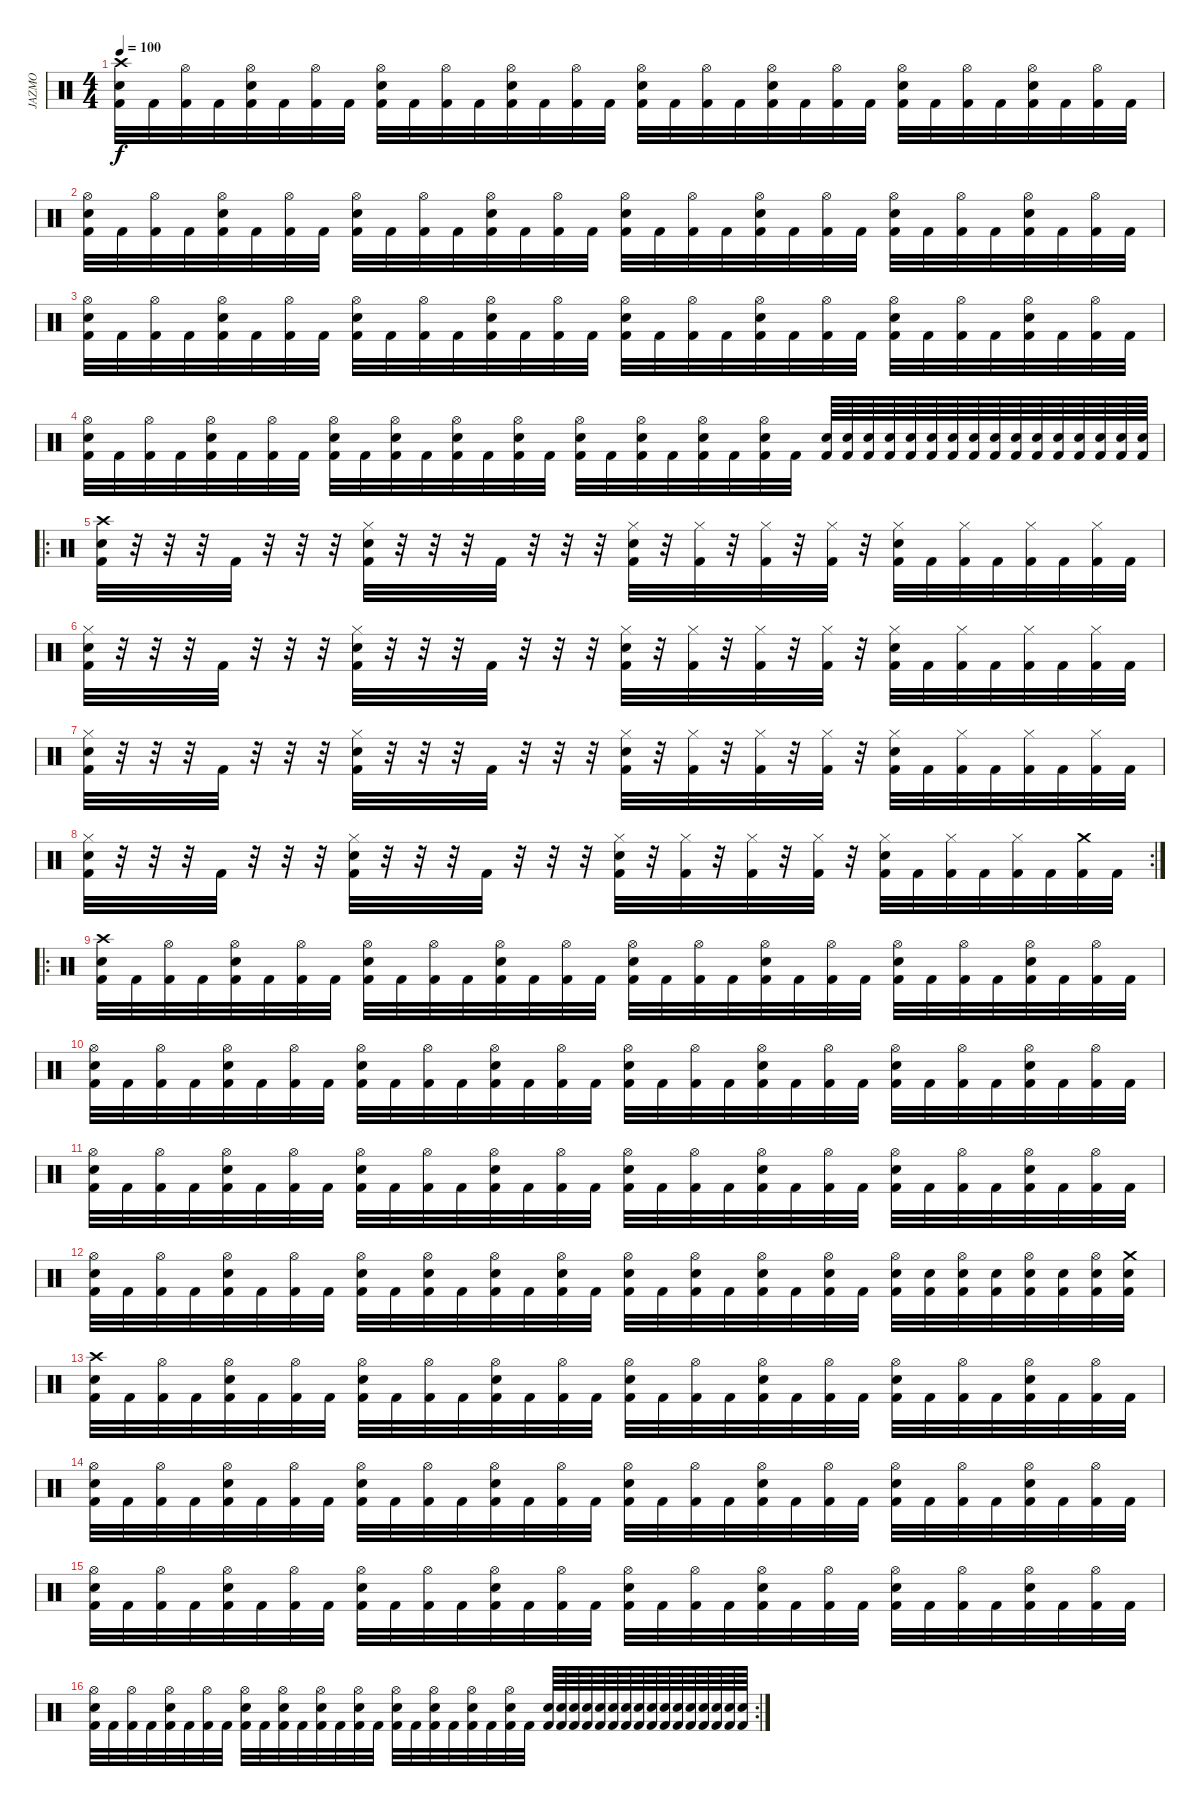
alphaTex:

\track ("JAZMO" "JAZMO") {instrument percussion}
\staff {score}
\articulation defaults
\ts (4 4)
\tempo 100
\clef neutral
\ks c
("Crash high (hit)" "Electric Snare (hit)" "Kick (hit) 2").32{dy f} "Kick (hit) 2".32 ("Hi-Hat (open)" "Kick (hit) 2").32 "Kick (hit) 2".32 ("Hi-Hat (open)" "Electric Snare (hit)" "Kick (hit) 2").32 "Kick (hit) 2".32 ("Hi-Hat (open)" "Kick (hit) 2").32 "Kick (hit) 2".32 ("Hi-Hat (open)" "Electric Snare (hit)" "Kick (hit) 2").32 "Kick (hit) 2".32 ("Hi-Hat (open)" "Kick (hit) 2").32 "Kick (hit) 2".32 ("Hi-Hat (open)" "Electric Snare (hit)" "Kick (hit) 2").32 "Kick (hit) 2".32 ("Hi-Hat (open)" "Kick (hit) 2").32 "Kick (hit) 2".32 ("Hi-Hat (open)" "Electric Snare (hit)" "Kick (hit) 2").32 "Kick (hit) 2".32 ("Hi-Hat (open)" "Kick (hit) 2").32 "Kick (hit) 2".32 ("Hi-Hat (open)" "Electric Snare (hit)" "Kick (hit) 2").32 "Kick (hit) 2".32 ("Hi-Hat (open)" "Kick (hit) 2").32 "Kick (hit) 2".32 ("Hi-Hat (open)" "Electric Snare (hit)" "Kick (hit) 2").32 "Kick (hit) 2".32 ("Hi-Hat (open)" "Kick (hit) 2").32 "Kick (hit) 2".32 ("Hi-Hat (open)" "Electric Snare (hit)" "Kick (hit) 2").32 "Kick (hit) 2".32 ("Hi-Hat (open)" "Kick (hit) 2").32 "Kick (hit) 2".32 |
("Hi-Hat (open)" "Electric Snare (hit)" "Kick (hit) 2").32 "Kick (hit) 2".32 ("Hi-Hat (open)" "Kick (hit) 2").32 "Kick (hit) 2".32 ("Hi-Hat (open)" "Electric Snare (hit)" "Kick (hit) 2").32 "Kick (hit) 2".32 ("Hi-Hat (open)" "Kick (hit) 2").32 "Kick (hit) 2".32 ("Hi-Hat (open)" "Electric Snare (hit)" "Kick (hit) 2").32 "Kick (hit) 2".32 ("Hi-Hat (open)" "Kick (hit) 2").32 "Kick (hit) 2".32 ("Hi-Hat (open)" "Electric Snare (hit)" "Kick (hit) 2").32 "Kick (hit) 2".32 ("Hi-Hat (open)" "Kick (hit) 2").32 "Kick (hit) 2".32 ("Hi-Hat (open)" "Electric Snare (hit)" "Kick (hit) 2").32 "Kick (hit) 2".32 ("Hi-Hat (open)" "Kick (hit) 2").32 "Kick (hit) 2".32 ("Hi-Hat (open)" "Electric Snare (hit)" "Kick (hit) 2").32 "Kick (hit) 2".32 ("Hi-Hat (open)" "Kick (hit) 2").32 "Kick (hit) 2".32 ("Hi-Hat (open)" "Electric Snare (hit)" "Kick (hit) 2").32 "Kick (hit) 2".32 ("Hi-Hat (open)" "Kick (hit) 2").32 "Kick (hit) 2".32 ("Hi-Hat (open)" "Electric Snare (hit)" "Kick (hit) 2").32 "Kick (hit) 2".32 ("Hi-Hat (open)" "Kick (hit) 2").32 "Kick (hit) 2".32 |
("Hi-Hat (open)" "Electric Snare (hit)" "Kick (hit) 2").32 "Kick (hit) 2".32 ("Hi-Hat (open)" "Kick (hit) 2").32 "Kick (hit) 2".32 ("Hi-Hat (open)" "Electric Snare (hit)" "Kick (hit) 2").32 "Kick (hit) 2".32 ("Hi-Hat (open)" "Kick (hit) 2").32 "Kick (hit) 2".32 ("Hi-Hat (open)" "Electric Snare (hit)" "Kick (hit) 2").32 "Kick (hit) 2".32 ("Hi-Hat (open)" "Kick (hit) 2").32 "Kick (hit) 2".32 ("Hi-Hat (open)" "Electric Snare (hit)" "Kick (hit) 2").32 "Kick (hit) 2".32 ("Hi-Hat (open)" "Kick (hit) 2").32 "Kick (hit) 2".32 ("Hi-Hat (open)" "Electric Snare (hit)" "Kick (hit) 2").32 "Kick (hit) 2".32 ("Hi-Hat (open)" "Kick (hit) 2").32 "Kick (hit) 2".32 ("Hi-Hat (open)" "Electric Snare (hit)" "Kick (hit) 2").32 "Kick (hit) 2".32 ("Hi-Hat (open)" "Kick (hit) 2").32 "Kick (hit) 2".32 ("Hi-Hat (open)" "Electric Snare (hit)" "Kick (hit) 2").32 "Kick (hit) 2".32 ("Hi-Hat (open)" "Kick (hit) 2").32 "Kick (hit) 2".32 ("Hi-Hat (open)" "Electric Snare (hit)" "Kick (hit) 2").32 "Kick (hit) 2".32 ("Hi-Hat (open)" "Kick (hit) 2").32 "Kick (hit) 2".32 |
("Hi-Hat (open)" "Electric Snare (hit)" "Kick (hit) 2").32 "Kick (hit) 2".32 ("Hi-Hat (open)" "Kick (hit) 2").32 "Kick (hit) 2".32 ("Hi-Hat (open)" "Electric Snare (hit)" "Kick (hit) 2").32 "Kick (hit) 2".32 ("Hi-Hat (open)" "Kick (hit) 2").32 "Kick (hit) 2".32 ("Hi-Hat (open)" "Electric Snare (hit)" "Kick (hit) 2").32 "Kick (hit) 2".32 ("Hi-Hat (open)" "Electric Snare (hit)" "Kick (hit) 2").32 "Kick (hit) 2".32 ("Hi-Hat (open)" "Electric Snare (hit)" "Kick (hit) 2").32 "Kick (hit) 2".32 ("Hi-Hat (open)" "Electric Snare (hit)" "Kick (hit) 2").32 "Kick (hit) 2".32 ("Hi-Hat (open)" "Electric Snare (hit)" "Kick (hit) 2").32 "Kick (hit) 2".32 ("Hi-Hat (open)" "Electric Snare (hit)" "Kick (hit) 2").32 "Kick (hit) 2".32 ("Hi-Hat (open)" "Electric Snare (hit)" "Kick (hit) 2").32 "Kick (hit) 2".32 ("Hi-Hat (open)" "Electric Snare (hit)" "Kick (hit) 2").32 "Kick (hit) 2".32 ("Electric Snare (hit)" "Kick (hit) 2").64 ("Electric Snare (hit)" "Kick (hit) 2").64 ("Electric Snare (hit)" "Kick (hit) 2").64 ("Electric Snare (hit)" "Kick (hit) 2").64 ("Electric Snare (hit)" "Kick (hit) 2").64 ("Electric Snare (hit)" "Kick (hit) 2").64 ("Electric Snare (hit)" "Kick (hit) 2").64 ("Electric Snare (hit)" "Kick (hit) 2").64 ("Electric Snare (hit)" "Kick (hit) 2").64 ("Electric Snare (hit)" "Kick (hit) 2").64 ("Electric Snare (hit)" "Kick (hit) 2").64 ("Electric Snare (hit)" "Kick (hit) 2").64 ("Electric Snare (hit)" "Kick (hit) 2").64 ("Electric Snare (hit)" "Kick (hit) 2").64 ("Electric Snare (hit)" "Kick (hit) 2").64 ("Electric Snare (hit)" "Kick (hit) 2").64 |
\ro
("Crash high (hit)" "Electric Snare (hit)" "Kick (hit) 2").32 r.32 r.32 r.32 "Kick (hit) 2".32 r.32 r.32 r.32 ("Hi-Hat (closed)" "Electric Snare (hit)" "Kick (hit) 2").32 r.32 r.32 r.32 "Kick (hit) 2".32 r.32 r.32 r.32 ("Hi-Hat (closed)" "Electric Snare (hit)" "Kick (hit) 2").32 r.32 ("Hi-Hat (closed)" "Kick (hit) 2").32 r.32 ("Hi-Hat (closed)" "Kick (hit) 2").32 r.32 ("Hi-Hat (closed)" "Kick (hit) 2").32 r.32 ("Hi-Hat (closed)" "Electric Snare (hit)" "Kick (hit) 2").32 "Kick (hit) 2".32 ("Hi-Hat (closed)" "Kick (hit) 2").32 "Kick (hit) 2".32 ("Hi-Hat (closed)" "Kick (hit) 2").32 "Kick (hit) 2".32 ("Hi-Hat (closed)" "Kick (hit) 2").32 "Kick (hit) 2".32 |
("Hi-Hat (closed)" "Electric Snare (hit)" "Kick (hit) 2").32 r.32 r.32 r.32 "Kick (hit) 2".32 r.32 r.32 r.32 ("Hi-Hat (closed)" "Electric Snare (hit)" "Kick (hit) 2").32 r.32 r.32 r.32 "Kick (hit) 2".32 r.32 r.32 r.32 ("Hi-Hat (closed)" "Electric Snare (hit)" "Kick (hit) 2").32 r.32 ("Hi-Hat (closed)" "Kick (hit) 2").32 r.32 ("Hi-Hat (closed)" "Kick (hit) 2").32 r.32 ("Hi-Hat (closed)" "Kick (hit) 2").32 r.32 ("Hi-Hat (closed)" "Electric Snare (hit)" "Kick (hit) 2").32 "Kick (hit) 2".32 ("Hi-Hat (closed)" "Kick (hit) 2").32 "Kick (hit) 2".32 ("Hi-Hat (closed)" "Kick (hit) 2").32 "Kick (hit) 2".32 ("Hi-Hat (closed)" "Kick (hit) 2").32 "Kick (hit) 2".32 |
("Hi-Hat (closed)" "Electric Snare (hit)" "Kick (hit) 2").32 r.32 r.32 r.32 "Kick (hit) 2".32 r.32 r.32 r.32 ("Hi-Hat (closed)" "Electric Snare (hit)" "Kick (hit) 2").32 r.32 r.32 r.32 "Kick (hit) 2".32 r.32 r.32 r.32 ("Hi-Hat (closed)" "Electric Snare (hit)" "Kick (hit) 2").32 r.32 ("Hi-Hat (closed)" "Kick (hit) 2").32 r.32 ("Hi-Hat (closed)" "Kick (hit) 2").32 r.32 ("Hi-Hat (closed)" "Kick (hit) 2").32 r.32 ("Hi-Hat (closed)" "Electric Snare (hit)" "Kick (hit) 2").32 "Kick (hit) 2".32 ("Hi-Hat (closed)" "Kick (hit) 2").32 "Kick (hit) 2".32 ("Hi-Hat (closed)" "Kick (hit) 2").32 "Kick (hit) 2".32 ("Hi-Hat (closed)" "Kick (hit) 2").32 "Kick (hit) 2".32 |
\rc 2
("Hi-Hat (closed)" "Electric Snare (hit)" "Kick (hit) 2").32 r.32 r.32 r.32 "Kick (hit) 2".32 r.32 r.32 r.32 ("Hi-Hat (closed)" "Electric Snare (hit)" "Kick (hit) 2").32 r.32 r.32 r.32 "Kick (hit) 2".32 r.32 r.32 r.32 ("Hi-Hat (closed)" "Electric Snare (hit)" "Kick (hit) 2").32 r.32 ("Hi-Hat (closed)" "Kick (hit) 2").32 r.32 ("Hi-Hat (closed)" "Kick (hit) 2").32 r.32 ("Hi-Hat (closed)" "Kick (hit) 2").32 r.32 ("Hi-Hat (closed)" "Electric Snare (hit)" "Kick (hit) 2").32 "Kick (hit) 2".32 ("Hi-Hat (closed)" "Kick (hit) 2").32 "Kick (hit) 2".32 ("Hi-Hat (closed)" "Kick (hit) 2").32 "Kick (hit) 2".32 ("Crash medium (hit)" "Kick (hit) 2").32 "Kick (hit) 2".32 |
\ro
("Crash high (hit)" "Electric Snare (hit)" "Kick (hit) 2").32 "Kick (hit) 2".32 ("Hi-Hat (open)" "Kick (hit) 2").32 "Kick (hit) 2".32 ("Hi-Hat (open)" "Electric Snare (hit)" "Kick (hit) 2").32 "Kick (hit) 2".32 ("Hi-Hat (open)" "Kick (hit) 2").32 "Kick (hit) 2".32 ("Hi-Hat (open)" "Electric Snare (hit)" "Kick (hit) 2").32 "Kick (hit) 2".32 ("Hi-Hat (open)" "Kick (hit) 2").32 "Kick (hit) 2".32 ("Hi-Hat (open)" "Electric Snare (hit)" "Kick (hit) 2").32 "Kick (hit) 2".32 ("Hi-Hat (open)" "Kick (hit) 2").32 "Kick (hit) 2".32 ("Hi-Hat (open)" "Electric Snare (hit)" "Kick (hit) 2").32 "Kick (hit) 2".32 ("Hi-Hat (open)" "Kick (hit) 2").32 "Kick (hit) 2".32 ("Hi-Hat (open)" "Electric Snare (hit)" "Kick (hit) 2").32 "Kick (hit) 2".32 ("Hi-Hat (open)" "Kick (hit) 2").32 "Kick (hit) 2".32 ("Hi-Hat (open)" "Electric Snare (hit)" "Kick (hit) 2").32 "Kick (hit) 2".32 ("Hi-Hat (open)" "Kick (hit) 2").32 "Kick (hit) 2".32 ("Hi-Hat (open)" "Electric Snare (hit)" "Kick (hit) 2").32 "Kick (hit) 2".32 ("Hi-Hat (open)" "Kick (hit) 2").32 "Kick (hit) 2".32 |
("Hi-Hat (open)" "Electric Snare (hit)" "Kick (hit) 2").32 "Kick (hit) 2".32 ("Hi-Hat (open)" "Kick (hit) 2").32 "Kick (hit) 2".32 ("Hi-Hat (open)" "Electric Snare (hit)" "Kick (hit) 2").32 "Kick (hit) 2".32 ("Hi-Hat (open)" "Kick (hit) 2").32 "Kick (hit) 2".32 ("Hi-Hat (open)" "Electric Snare (hit)" "Kick (hit) 2").32 "Kick (hit) 2".32 ("Hi-Hat (open)" "Kick (hit) 2").32 "Kick (hit) 2".32 ("Hi-Hat (open)" "Electric Snare (hit)" "Kick (hit) 2").32 "Kick (hit) 2".32 ("Hi-Hat (open)" "Kick (hit) 2").32 "Kick (hit) 2".32 ("Hi-Hat (open)" "Electric Snare (hit)" "Kick (hit) 2").32 "Kick (hit) 2".32 ("Hi-Hat (open)" "Kick (hit) 2").32 "Kick (hit) 2".32 ("Hi-Hat (open)" "Electric Snare (hit)" "Kick (hit) 2").32 "Kick (hit) 2".32 ("Hi-Hat (open)" "Kick (hit) 2").32 "Kick (hit) 2".32 ("Hi-Hat (open)" "Electric Snare (hit)" "Kick (hit) 2").32 "Kick (hit) 2".32 ("Hi-Hat (open)" "Kick (hit) 2").32 "Kick (hit) 2".32 ("Hi-Hat (open)" "Electric Snare (hit)" "Kick (hit) 2").32 "Kick (hit) 2".32 ("Hi-Hat (open)" "Kick (hit) 2").32 "Kick (hit) 2".32 |
("Hi-Hat (open)" "Electric Snare (hit)" "Kick (hit) 2").32 "Kick (hit) 2".32 ("Hi-Hat (open)" "Kick (hit) 2").32 "Kick (hit) 2".32 ("Hi-Hat (open)" "Electric Snare (hit)" "Kick (hit) 2").32 "Kick (hit) 2".32 ("Hi-Hat (open)" "Kick (hit) 2").32 "Kick (hit) 2".32 ("Hi-Hat (open)" "Electric Snare (hit)" "Kick (hit) 2").32 "Kick (hit) 2".32 ("Hi-Hat (open)" "Kick (hit) 2").32 "Kick (hit) 2".32 ("Hi-Hat (open)" "Electric Snare (hit)" "Kick (hit) 2").32 "Kick (hit) 2".32 ("Hi-Hat (open)" "Kick (hit) 2").32 "Kick (hit) 2".32 ("Hi-Hat (open)" "Electric Snare (hit)" "Kick (hit) 2").32 "Kick (hit) 2".32 ("Hi-Hat (open)" "Kick (hit) 2").32 "Kick (hit) 2".32 ("Hi-Hat (open)" "Electric Snare (hit)" "Kick (hit) 2").32 "Kick (hit) 2".32 ("Hi-Hat (open)" "Kick (hit) 2").32 "Kick (hit) 2".32 ("Hi-Hat (open)" "Electric Snare (hit)" "Kick (hit) 2").32 "Kick (hit) 2".32 ("Hi-Hat (open)" "Kick (hit) 2").32 "Kick (hit) 2".32 ("Hi-Hat (open)" "Electric Snare (hit)" "Kick (hit) 2").32 "Kick (hit) 2".32 ("Hi-Hat (open)" "Kick (hit) 2").32 "Kick (hit) 2".32 |
("Hi-Hat (open)" "Electric Snare (hit)" "Kick (hit) 2").32 "Kick (hit) 2".32 ("Hi-Hat (open)" "Kick (hit) 2").32 "Kick (hit) 2".32 ("Hi-Hat (open)" "Electric Snare (hit)" "Kick (hit) 2").32 "Kick (hit) 2".32 ("Hi-Hat (open)" "Kick (hit) 2").32 "Kick (hit) 2".32 ("Hi-Hat (open)" "Electric Snare (hit)" "Kick (hit) 2").32 "Kick (hit) 2".32 ("Hi-Hat (open)" "Electric Snare (hit)" "Kick (hit) 2").32 "Kick (hit) 2".32 ("Hi-Hat (open)" "Electric Snare (hit)" "Kick (hit) 2").32 "Kick (hit) 2".32 ("Hi-Hat (open)" "Electric Snare (hit)" "Kick (hit) 2").32 "Kick (hit) 2".32 ("Hi-Hat (open)" "Electric Snare (hit)" "Kick (hit) 2").32 "Kick (hit) 2".32 ("Hi-Hat (open)" "Electric Snare (hit)" "Kick (hit) 2").32 "Kick (hit) 2".32 ("Hi-Hat (open)" "Electric Snare (hit)" "Kick (hit) 2").32 "Kick (hit) 2".32 ("Hi-Hat (open)" "Electric Snare (hit)" "Kick (hit) 2").32 "Kick (hit) 2".32 ("Hi-Hat (open)" "Electric Snare (hit)" "Kick (hit) 2").32 ("Electric Snare (hit)" "Kick (hit) 2").32 ("Hi-Hat (open)" "Electric Snare (hit)" "Kick (hit) 2").32 ("Electric Snare (hit)" "Kick (hit) 2").32 ("Hi-Hat (open)" "Electric Snare (hit)" "Kick (hit) 2").32 ("Electric Snare (hit)" "Kick (hit) 2").32 ("Hi-Hat (open)" "Electric Snare (hit)" "Kick (hit) 2").32 ("Crash medium (hit)" "Electric Snare (hit)" "Kick (hit) 2").32 |
("Crash high (hit)" "Electric Snare (hit)" "Kick (hit) 2").32 "Kick (hit) 2".32 ("Hi-Hat (open)" "Kick (hit) 2").32 "Kick (hit) 2".32 ("Hi-Hat (open)" "Electric Snare (hit)" "Kick (hit) 2").32 "Kick (hit) 2".32 ("Hi-Hat (open)" "Kick (hit) 2").32 "Kick (hit) 2".32 ("Hi-Hat (open)" "Electric Snare (hit)" "Kick (hit) 2").32 "Kick (hit) 2".32 ("Hi-Hat (open)" "Kick (hit) 2").32 "Kick (hit) 2".32 ("Hi-Hat (open)" "Electric Snare (hit)" "Kick (hit) 2").32 "Kick (hit) 2".32 ("Hi-Hat (open)" "Kick (hit) 2").32 "Kick (hit) 2".32 ("Hi-Hat (open)" "Electric Snare (hit)" "Kick (hit) 2").32 "Kick (hit) 2".32 ("Hi-Hat (open)" "Kick (hit) 2").32 "Kick (hit) 2".32 ("Hi-Hat (open)" "Electric Snare (hit)" "Kick (hit) 2").32 "Kick (hit) 2".32 ("Hi-Hat (open)" "Kick (hit) 2").32 "Kick (hit) 2".32 ("Hi-Hat (open)" "Electric Snare (hit)" "Kick (hit) 2").32 "Kick (hit) 2".32 ("Hi-Hat (open)" "Kick (hit) 2").32 "Kick (hit) 2".32 ("Hi-Hat (open)" "Electric Snare (hit)" "Kick (hit) 2").32 "Kick (hit) 2".32 ("Hi-Hat (open)" "Kick (hit) 2").32 "Kick (hit) 2".32 |
("Hi-Hat (open)" "Electric Snare (hit)" "Kick (hit) 2").32 "Kick (hit) 2".32 ("Hi-Hat (open)" "Kick (hit) 2").32 "Kick (hit) 2".32 ("Hi-Hat (open)" "Electric Snare (hit)" "Kick (hit) 2").32 "Kick (hit) 2".32 ("Hi-Hat (open)" "Kick (hit) 2").32 "Kick (hit) 2".32 ("Hi-Hat (open)" "Electric Snare (hit)" "Kick (hit) 2").32 "Kick (hit) 2".32 ("Hi-Hat (open)" "Kick (hit) 2").32 "Kick (hit) 2".32 ("Hi-Hat (open)" "Electric Snare (hit)" "Kick (hit) 2").32 "Kick (hit) 2".32 ("Hi-Hat (open)" "Kick (hit) 2").32 "Kick (hit) 2".32 ("Hi-Hat (open)" "Electric Snare (hit)" "Kick (hit) 2").32 "Kick (hit) 2".32 ("Hi-Hat (open)" "Kick (hit) 2").32 "Kick (hit) 2".32 ("Hi-Hat (open)" "Electric Snare (hit)" "Kick (hit) 2").32 "Kick (hit) 2".32 ("Hi-Hat (open)" "Kick (hit) 2").32 "Kick (hit) 2".32 ("Hi-Hat (open)" "Electric Snare (hit)" "Kick (hit) 2").32 "Kick (hit) 2".32 ("Hi-Hat (open)" "Kick (hit) 2").32 "Kick (hit) 2".32 ("Hi-Hat (open)" "Electric Snare (hit)" "Kick (hit) 2").32 "Kick (hit) 2".32 ("Hi-Hat (open)" "Kick (hit) 2").32 "Kick (hit) 2".32 |
("Hi-Hat (open)" "Electric Snare (hit)" "Kick (hit) 2").32 "Kick (hit) 2".32 ("Hi-Hat (open)" "Kick (hit) 2").32 "Kick (hit) 2".32 ("Hi-Hat (open)" "Electric Snare (hit)" "Kick (hit) 2").32 "Kick (hit) 2".32 ("Hi-Hat (open)" "Kick (hit) 2").32 "Kick (hit) 2".32 ("Hi-Hat (open)" "Electric Snare (hit)" "Kick (hit) 2").32 "Kick (hit) 2".32 ("Hi-Hat (open)" "Kick (hit) 2").32 "Kick (hit) 2".32 ("Hi-Hat (open)" "Electric Snare (hit)" "Kick (hit) 2").32 "Kick (hit) 2".32 ("Hi-Hat (open)" "Kick (hit) 2").32 "Kick (hit) 2".32 ("Hi-Hat (open)" "Electric Snare (hit)" "Kick (hit) 2").32 "Kick (hit) 2".32 ("Hi-Hat (open)" "Kick (hit) 2").32 "Kick (hit) 2".32 ("Hi-Hat (open)" "Electric Snare (hit)" "Kick (hit) 2").32 "Kick (hit) 2".32 ("Hi-Hat (open)" "Kick (hit) 2").32 "Kick (hit) 2".32 ("Hi-Hat (open)" "Electric Snare (hit)" "Kick (hit) 2").32 "Kick (hit) 2".32 ("Hi-Hat (open)" "Kick (hit) 2").32 "Kick (hit) 2".32 ("Hi-Hat (open)" "Electric Snare (hit)" "Kick (hit) 2").32 "Kick (hit) 2".32 ("Hi-Hat (open)" "Kick (hit) 2").32 "Kick (hit) 2".32 |
\rc 2
("Hi-Hat (open)" "Electric Snare (hit)" "Kick (hit) 2").32 "Kick (hit) 2".32 ("Hi-Hat (open)" "Kick (hit) 2").32 "Kick (hit) 2".32 ("Hi-Hat (open)" "Electric Snare (hit)" "Kick (hit) 2").32 "Kick (hit) 2".32 ("Hi-Hat (open)" "Kick (hit) 2").32 "Kick (hit) 2".32 ("Hi-Hat (open)" "Electric Snare (hit)" "Kick (hit) 2").32 "Kick (hit) 2".32 ("Hi-Hat (open)" "Electric Snare (hit)" "Kick (hit) 2").32 "Kick (hit) 2".32 ("Hi-Hat (open)" "Electric Snare (hit)" "Kick (hit) 2").32 "Kick (hit) 2".32 ("Hi-Hat (open)" "Electric Snare (hit)" "Kick (hit) 2").32 "Kick (hit) 2".32 ("Hi-Hat (open)" "Electric Snare (hit)" "Kick (hit) 2").32 "Kick (hit) 2".32 ("Hi-Hat (open)" "Electric Snare (hit)" "Kick (hit) 2").32 "Kick (hit) 2".32 ("Hi-Hat (open)" "Electric Snare (hit)" "Kick (hit) 2").32 "Kick (hit) 2".32 ("Hi-Hat (open)" "Electric Snare (hit)" "Kick (hit) 2").32 "Kick (hit) 2".32 ("Electric Snare (hit)" "Kick (hit) 2").64 ("Electric Snare (hit)" "Kick (hit) 2").64 ("Electric Snare (hit)" "Kick (hit) 2").64 ("Electric Snare (hit)" "Kick (hit) 2").64 ("Electric Snare (hit)" "Kick (hit) 2").64 ("Electric Snare (hit)" "Kick (hit) 2").64 ("Electric Snare (hit)" "Kick (hit) 2").64 ("Electric Snare (hit)" "Kick (hit) 2").64 ("Electric Snare (hit)" "Kick (hit) 2").64 ("Electric Snare (hit)" "Kick (hit) 2").64 ("Electric Snare (hit)" "Kick (hit) 2").64 ("Electric Snare (hit)" "Kick (hit) 2").64 ("Electric Snare (hit)" "Kick (hit) 2").64 ("Electric Snare (hit)" "Kick (hit) 2").64 ("Electric Snare (hit)" "Kick (hit) 2").64 ("Electric Snare (hit)" "Kick (hit) 2").64
